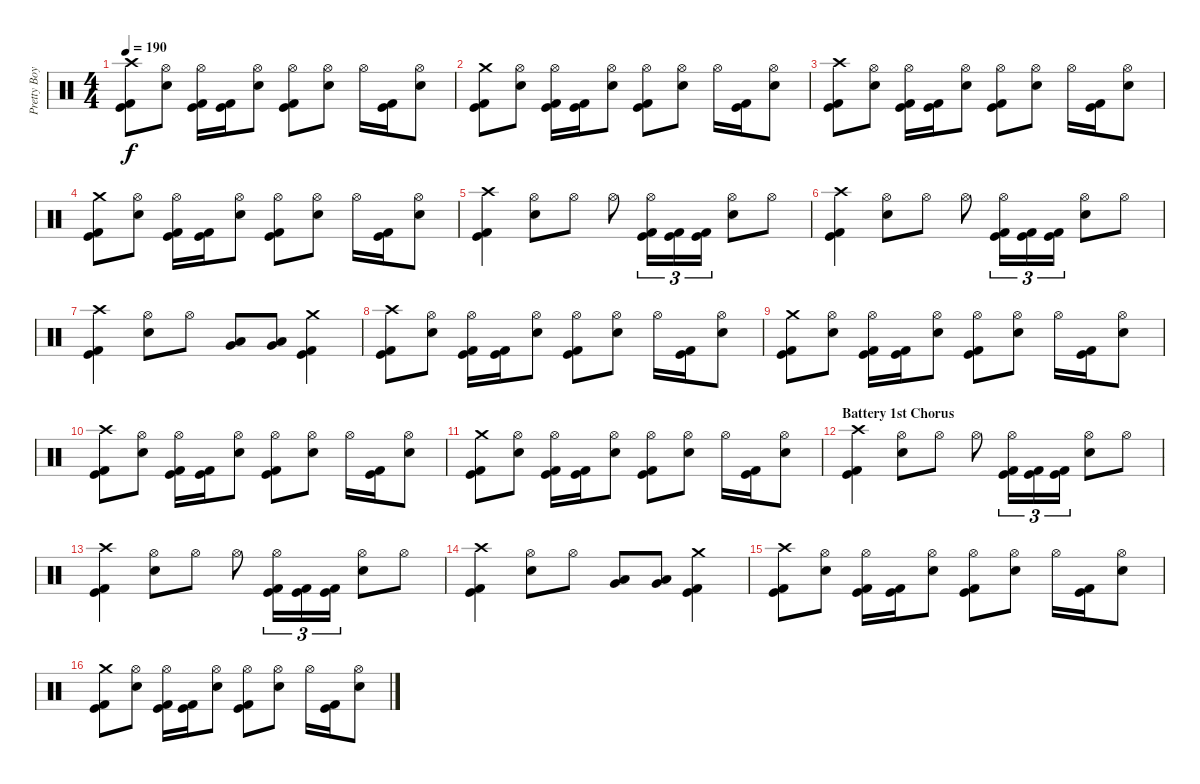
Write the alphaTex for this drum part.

\track ("Pretty Boy Geoff (Lars Drums)" "Pretty Boy") {instrument percussion}
\staff {score}
\articulation defaults
\ts (4 4)
\tempo 190
\clef neutral
\ks c
("Crash high (hit)" "Kick (hit) 2" "Kick (hit)").8{dy f} ("Hi-Hat (open)" "Electric Snare (hit)").8 ("Hi-Hat (open)" "Kick (hit) 2" "Kick (hit)").16 ("Kick (hit) 2" "Kick (hit)").16 ("Hi-Hat (open)" "Electric Snare (hit)").8 ("Hi-Hat (open)" "Kick (hit) 2" "Kick (hit)").8 ("Hi-Hat (open)" "Electric Snare (hit)").8 "Hi-Hat (open)".16 ("Kick (hit) 2" "Kick (hit)").16 ("Hi-Hat (open)" "Electric Snare (hit)").8 |
("Crash medium (hit)" "Kick (hit) 2" "Kick (hit)").8 ("Hi-Hat (open)" "Electric Snare (hit)").8 ("Hi-Hat (open)" "Kick (hit) 2" "Kick (hit)").16 ("Kick (hit) 2" "Kick (hit)").16 ("Hi-Hat (open)" "Electric Snare (hit)").8 ("Hi-Hat (open)" "Kick (hit) 2" "Kick (hit)").8 ("Hi-Hat (open)" "Electric Snare (hit)").8 "Hi-Hat (open)".16 ("Kick (hit) 2" "Kick (hit)").16 ("Hi-Hat (open)" "Electric Snare (hit)").8 |
("Crash high (hit)" "Kick (hit) 2" "Kick (hit)").8 ("Hi-Hat (open)" "Electric Snare (hit)").8 ("Hi-Hat (open)" "Kick (hit) 2" "Kick (hit)").16 ("Kick (hit) 2" "Kick (hit)").16 ("Hi-Hat (open)" "Electric Snare (hit)").8 ("Hi-Hat (open)" "Kick (hit) 2" "Kick (hit)").8 ("Hi-Hat (open)" "Electric Snare (hit)").8 "Hi-Hat (open)".16 ("Kick (hit) 2" "Kick (hit)").16 ("Hi-Hat (open)" "Electric Snare (hit)").8 |
("Crash medium (hit)" "Kick (hit) 2" "Kick (hit)").8 ("Hi-Hat (open)" "Electric Snare (hit)").8 ("Hi-Hat (open)" "Kick (hit) 2" "Kick (hit)").16 ("Kick (hit) 2" "Kick (hit)").16 ("Hi-Hat (open)" "Electric Snare (hit)").8 ("Hi-Hat (open)" "Kick (hit) 2" "Kick (hit)").8 ("Hi-Hat (open)" "Electric Snare (hit)").8 "Hi-Hat (open)".16 ("Kick (hit) 2" "Kick (hit)").16 ("Hi-Hat (open)" "Electric Snare (hit)").8 |
("Crash high (hit)" "Kick (hit) 2" "Kick (hit)").4 ("Hi-Hat (open)" "Electric Snare (hit)").8 "Hi-Hat (open)".8 "Hi-Hat (open)".8 ("Hi-Hat (open)" "Kick (hit) 2" "Kick (hit)").16{tu (3 2)} ("Kick (hit) 2" "Kick (hit)").16{tu (3 2)} ("Kick (hit) 2" "Kick (hit)").16{tu (3 2)} ("Hi-Hat (open)" "Electric Snare (hit)").8 "Hi-Hat (open)".8 |
("Crash high (hit)" "Kick (hit) 2" "Kick (hit)").4 ("Hi-Hat (open)" "Electric Snare (hit)").8 "Hi-Hat (open)".8 "Hi-Hat (open)".8 ("Hi-Hat (open)" "Kick (hit) 2" "Kick (hit)").16{tu (3 2)} ("Kick (hit) 2" "Kick (hit)").16{tu (3 2)} ("Kick (hit) 2" "Kick (hit)").16{tu (3 2)} ("Hi-Hat (open)" "Electric Snare (hit)").8 "Hi-Hat (open)".8 |
("Crash high (hit)" "Kick (hit) 2" "Kick (hit)").4 ("Hi-Hat (open)" "Electric Snare (hit)").8 "Hi-Hat (open)".8 ("Low Tom (hit)" "Very Low Tom (hit)").8 ("Low Tom (hit)" "Very Low Tom (hit)").8 ("Crash medium (hit)" "Kick (hit) 2" "Kick (hit)").4 |
("Crash high (hit)" "Kick (hit) 2" "Kick (hit)").8 ("Hi-Hat (open)" "Electric Snare (hit)").8 ("Hi-Hat (open)" "Kick (hit) 2" "Kick (hit)").16 ("Kick (hit) 2" "Kick (hit)").16 ("Hi-Hat (open)" "Electric Snare (hit)").8 ("Hi-Hat (open)" "Kick (hit) 2" "Kick (hit)").8 ("Hi-Hat (open)" "Electric Snare (hit)").8 "Hi-Hat (open)".16 ("Kick (hit) 2" "Kick (hit)").16 ("Hi-Hat (open)" "Electric Snare (hit)").8 |
("Crash medium (hit)" "Kick (hit) 2" "Kick (hit)").8 ("Hi-Hat (open)" "Electric Snare (hit)").8 ("Hi-Hat (open)" "Kick (hit) 2" "Kick (hit)").16 ("Kick (hit) 2" "Kick (hit)").16 ("Hi-Hat (open)" "Electric Snare (hit)").8 ("Hi-Hat (open)" "Kick (hit) 2" "Kick (hit)").8 ("Hi-Hat (open)" "Electric Snare (hit)").8 "Hi-Hat (open)".16 ("Kick (hit) 2" "Kick (hit)").16 ("Hi-Hat (open)" "Electric Snare (hit)").8 |
("Crash high (hit)" "Kick (hit) 2" "Kick (hit)").8 ("Hi-Hat (open)" "Electric Snare (hit)").8 ("Hi-Hat (open)" "Kick (hit) 2" "Kick (hit)").16 ("Kick (hit) 2" "Kick (hit)").16 ("Hi-Hat (open)" "Electric Snare (hit)").8 ("Hi-Hat (open)" "Kick (hit) 2" "Kick (hit)").8 ("Hi-Hat (open)" "Electric Snare (hit)").8 "Hi-Hat (open)".16 ("Kick (hit) 2" "Kick (hit)").16 ("Hi-Hat (open)" "Electric Snare (hit)").8 |
("Crash medium (hit)" "Kick (hit) 2" "Kick (hit)").8 ("Hi-Hat (open)" "Electric Snare (hit)").8 ("Hi-Hat (open)" "Kick (hit) 2" "Kick (hit)").16 ("Kick (hit) 2" "Kick (hit)").16 ("Hi-Hat (open)" "Electric Snare (hit)").8 ("Hi-Hat (open)" "Kick (hit) 2" "Kick (hit)").8 ("Hi-Hat (open)" "Electric Snare (hit)").8 "Hi-Hat (open)".16 ("Kick (hit) 2" "Kick (hit)").16 ("Hi-Hat (open)" "Electric Snare (hit)").8 |
\section ("" "Battery 1st Chorus")
("Crash high (hit)" "Kick (hit) 2" "Kick (hit)").4 ("Hi-Hat (open)" "Electric Snare (hit)").8 "Hi-Hat (open)".8 "Hi-Hat (open)".8 ("Hi-Hat (open)" "Kick (hit) 2" "Kick (hit)").16{tu (3 2)} ("Kick (hit) 2" "Kick (hit)").16{tu (3 2)} ("Kick (hit) 2" "Kick (hit)").16{tu (3 2)} ("Hi-Hat (open)" "Electric Snare (hit)").8 "Hi-Hat (open)".8 |
("Crash high (hit)" "Kick (hit) 2" "Kick (hit)").4 ("Hi-Hat (open)" "Electric Snare (hit)").8 "Hi-Hat (open)".8 "Hi-Hat (open)".8 ("Hi-Hat (open)" "Kick (hit) 2" "Kick (hit)").16{tu (3 2)} ("Kick (hit) 2" "Kick (hit)").16{tu (3 2)} ("Kick (hit) 2" "Kick (hit)").16{tu (3 2)} ("Hi-Hat (open)" "Electric Snare (hit)").8 "Hi-Hat (open)".8 |
("Crash high (hit)" "Kick (hit) 2" "Kick (hit)").4 ("Hi-Hat (open)" "Electric Snare (hit)").8 "Hi-Hat (open)".8 ("Low Tom (hit)" "Very Low Tom (hit)").8 ("Low Tom (hit)" "Very Low Tom (hit)").8 ("Crash medium (hit)" "Kick (hit) 2" "Kick (hit)").4 |
("Crash high (hit)" "Kick (hit) 2" "Kick (hit)").8 ("Hi-Hat (open)" "Electric Snare (hit)").8 ("Hi-Hat (open)" "Kick (hit) 2" "Kick (hit)").16 ("Kick (hit) 2" "Kick (hit)").16 ("Hi-Hat (open)" "Electric Snare (hit)").8 ("Hi-Hat (open)" "Kick (hit) 2" "Kick (hit)").8 ("Hi-Hat (open)" "Electric Snare (hit)").8 "Hi-Hat (open)".16 ("Kick (hit) 2" "Kick (hit)").16 ("Hi-Hat (open)" "Electric Snare (hit)").8 |
("Crash medium (hit)" "Kick (hit) 2" "Kick (hit)").8 ("Hi-Hat (open)" "Electric Snare (hit)").8 ("Hi-Hat (open)" "Kick (hit) 2" "Kick (hit)").16 ("Kick (hit) 2" "Kick (hit)").16 ("Hi-Hat (open)" "Electric Snare (hit)").8 ("Hi-Hat (open)" "Kick (hit) 2" "Kick (hit)").8 ("Hi-Hat (open)" "Electric Snare (hit)").8 "Hi-Hat (open)".16 ("Kick (hit) 2" "Kick (hit)").16 ("Hi-Hat (open)" "Electric Snare (hit)").8
